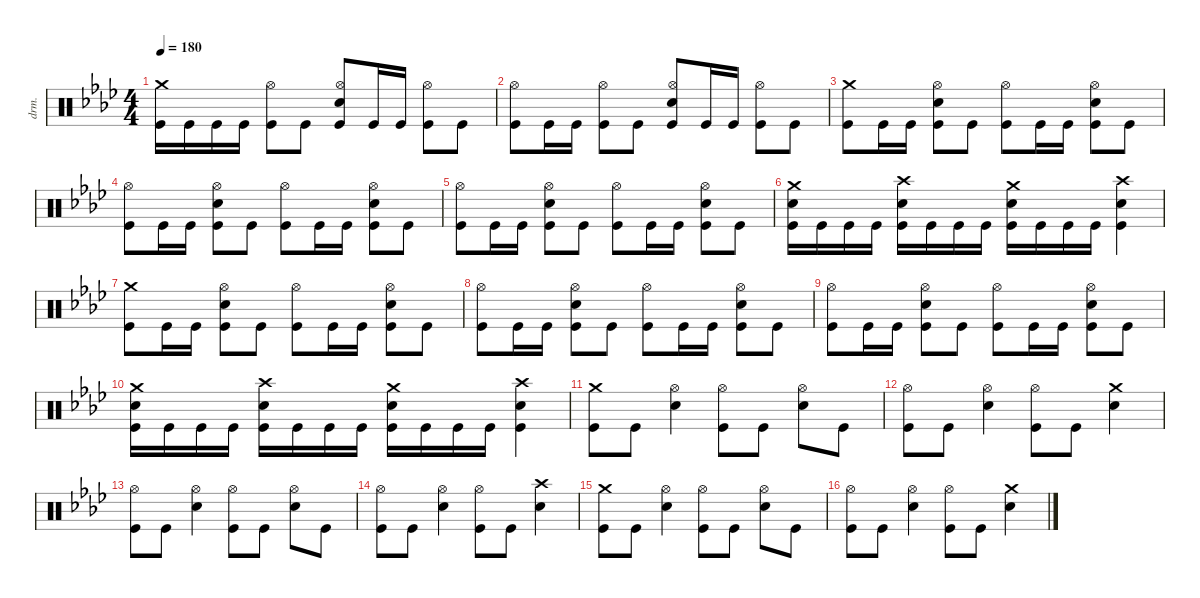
\defaultSystemsLayout 4
\hideDynamics
\bracketExtendMode nobrackets
\otherSystemsTrackNameOrientation horizontal
\track ("Percussion" "drm.") {instrument percussion}
\staff {score}
\articulation defaults
\ts (4 4)
\tempo 180
\clef neutral
\ks fminor
("Crash medium (hit)"{acc forcenatural} "Kick (hit)"{acc forcenatural}).16{dy f beam Down} "Kick (hit)"{acc forcenatural}.16{beam Down} "Kick (hit)"{acc forcenatural}.16{beam Down} "Kick (hit)"{acc forcenatural}.16{beam Down} ("Hi-Hat (open)"{acc forcenatural} "Kick (hit)"{acc forcenatural}).8{beam Down} "Kick (hit)"{acc forcenatural}.8{beam Down} ("Hi-Hat (open)"{acc forcenatural} "Snare (hit) 2"{acc forcenatural} "Kick (hit)"{acc forcenatural}).8{beam Up} "Kick (hit)"{acc forcenatural}.16{beam Up} "Kick (hit)"{acc forcenatural}.16{beam Up} ("Hi-Hat (open)"{acc forcenatural} "Kick (hit)"{acc forcenatural}).8{beam Down} "Kick (hit)"{acc forcenatural}.8{beam Down} |
("Hi-Hat (open)"{acc forcenatural} "Kick (hit)"{acc forcenatural}).8{beam Down} "Kick (hit)"{acc forcenatural}.16{beam Down} "Kick (hit)"{acc forcenatural}.16{beam Down} ("Hi-Hat (open)"{acc forcenatural} "Kick (hit)"{acc forcenatural}).8{beam Down} "Kick (hit)"{acc forcenatural}.8{beam Down} ("Hi-Hat (open)"{acc forcenatural} "Snare (hit) 2"{acc forcenatural} "Kick (hit)"{acc forcenatural}).8{beam Up} "Kick (hit)"{acc forcenatural}.16{beam Up} "Kick (hit)"{acc forcenatural}.16{beam Up} ("Hi-Hat (open)"{acc forcenatural} "Kick (hit)"{acc forcenatural}).8{beam Down} "Kick (hit)"{acc forcenatural}.8{beam Down} |
("Crash medium (hit)"{acc forcenatural} "Kick (hit)"{acc forcenatural}).8{beam Down} "Kick (hit)"{acc forcenatural}.16{beam Down} "Kick (hit)"{acc forcenatural}.16{beam Down} ("Hi-Hat (open)"{acc forcenatural} "Snare (hit) 2"{acc forcenatural} "Kick (hit)"{acc forcenatural}).8{beam Down} "Kick (hit)"{acc forcenatural}.8{beam Down} ("Hi-Hat (open)"{acc forcenatural} "Kick (hit)"{acc forcenatural}).8{beam Down} "Kick (hit)"{acc forcenatural}.16{beam Down} "Kick (hit)"{acc forcenatural}.16{beam Down} ("Hi-Hat (open)"{acc forcenatural} "Snare (hit) 2"{acc forcenatural} "Kick (hit)"{acc forcenatural}).8{beam Down} "Kick (hit)"{acc forcenatural}.8{beam Down} |
("Hi-Hat (open)"{acc forcenatural} "Kick (hit)"{acc forcenatural}).8{beam Down} "Kick (hit)"{acc forcenatural}.16{beam Down} "Kick (hit)"{acc forcenatural}.16{beam Down} ("Hi-Hat (open)"{acc forcenatural} "Snare (hit) 2"{acc forcenatural} "Kick (hit)"{acc forcenatural}).8{beam Down} "Kick (hit)"{acc forcenatural}.8{beam Down} ("Hi-Hat (open)"{acc forcenatural} "Kick (hit)"{acc forcenatural}).8{beam Down} "Kick (hit)"{acc forcenatural}.16{beam Down} "Kick (hit)"{acc forcenatural}.16{beam Down} ("Hi-Hat (open)"{acc forcenatural} "Snare (hit) 2"{acc forcenatural} "Kick (hit)"{acc forcenatural}).8{beam Down} "Kick (hit)"{acc forcenatural}.8{beam Down} |
("Hi-Hat (open)"{acc forcenatural} "Kick (hit)"{acc forcenatural}).8{beam Down} "Kick (hit)"{acc forcenatural}.16{beam Down} "Kick (hit)"{acc forcenatural}.16{beam Down} ("Hi-Hat (open)"{acc forcenatural} "Snare (hit) 2"{acc forcenatural} "Kick (hit)"{acc forcenatural}).8{beam Down} "Kick (hit)"{acc forcenatural}.8{beam Down} ("Hi-Hat (open)"{acc forcenatural} "Kick (hit)"{acc forcenatural}).8{beam Down} "Kick (hit)"{acc forcenatural}.16{beam Down} "Kick (hit)"{acc forcenatural}.16{beam Down} ("Hi-Hat (open)"{acc forcenatural} "Snare (hit) 2"{acc forcenatural} "Kick (hit)"{acc forcenatural}).8{beam Down} "Kick (hit)"{acc forcenatural}.8{beam Down} |
("Crash medium (hit)"{acc forcenatural} "Snare (hit) 2"{acc forcenatural} "Kick (hit)"{acc forcenatural}).16{beam Down} "Kick (hit)"{acc forcenatural}.16{beam Down} "Kick (hit)"{acc forcenatural}.16{beam Down} "Kick (hit)"{acc forcenatural}.16{beam Down} ("Crash high (hit)"{acc forcenatural} "Snare (hit) 2"{acc forcenatural} "Kick (hit)"{acc forcenatural}).16{beam Down} "Kick (hit)"{acc forcenatural}.16{beam Down} "Kick (hit)"{acc forcenatural}.16{beam Down} "Kick (hit)"{acc forcenatural}.16{beam Down} ("Crash medium (hit)"{acc forcenatural} "Snare (hit) 2"{acc forcenatural} "Kick (hit)"{acc forcenatural}).16{beam Down} "Kick (hit)"{acc forcenatural}.16{beam Down} "Kick (hit)"{acc forcenatural}.16{beam Down} "Kick (hit)"{acc forcenatural}.16{beam Down} ("Crash high (hit)"{acc forcenatural} "Snare (hit) 2"{acc forcenatural} "Kick (hit)"{acc forcenatural}).4{beam Down} |
("Crash medium (hit)"{acc forcenatural} "Kick (hit)"{acc forcenatural}).8{beam Down} "Kick (hit)"{acc forcenatural}.16{beam Down} "Kick (hit)"{acc forcenatural}.16{beam Down} ("Hi-Hat (open)"{acc forcenatural} "Snare (hit) 2"{acc forcenatural} "Kick (hit)"{acc forcenatural}).8{beam Down} "Kick (hit)"{acc forcenatural}.8{beam Down} ("Hi-Hat (open)"{acc forcenatural} "Kick (hit)"{acc forcenatural}).8{beam Down} "Kick (hit)"{acc forcenatural}.16{beam Down} "Kick (hit)"{acc forcenatural}.16{beam Down} ("Hi-Hat (open)"{acc forcenatural} "Snare (hit) 2"{acc forcenatural} "Kick (hit)"{acc forcenatural}).8{beam Down} "Kick (hit)"{acc forcenatural}.8{beam Down} |
("Hi-Hat (open)"{acc forcenatural} "Kick (hit)"{acc forcenatural}).8{beam Down} "Kick (hit)"{acc forcenatural}.16{beam Down} "Kick (hit)"{acc forcenatural}.16{beam Down} ("Hi-Hat (open)"{acc forcenatural} "Snare (hit) 2"{acc forcenatural} "Kick (hit)"{acc forcenatural}).8{beam Down} "Kick (hit)"{acc forcenatural}.8{beam Down} ("Hi-Hat (open)"{acc forcenatural} "Kick (hit)"{acc forcenatural}).8{beam Down} "Kick (hit)"{acc forcenatural}.16{beam Down} "Kick (hit)"{acc forcenatural}.16{beam Down} ("Hi-Hat (open)"{acc forcenatural} "Snare (hit) 2"{acc forcenatural} "Kick (hit)"{acc forcenatural}).8{beam Down} "Kick (hit)"{acc forcenatural}.8{beam Down} |
("Hi-Hat (open)"{acc forcenatural} "Kick (hit)"{acc forcenatural}).8{beam Down} "Kick (hit)"{acc forcenatural}.16{beam Down} "Kick (hit)"{acc forcenatural}.16{beam Down} ("Hi-Hat (open)"{acc forcenatural} "Snare (hit) 2"{acc forcenatural} "Kick (hit)"{acc forcenatural}).8{beam Down} "Kick (hit)"{acc forcenatural}.8{beam Down} ("Hi-Hat (open)"{acc forcenatural} "Kick (hit)"{acc forcenatural}).8{beam Down} "Kick (hit)"{acc forcenatural}.16{beam Down} "Kick (hit)"{acc forcenatural}.16{beam Down} ("Hi-Hat (open)"{acc forcenatural} "Snare (hit) 2"{acc forcenatural} "Kick (hit)"{acc forcenatural}).8{beam Down} "Kick (hit)"{acc forcenatural}.8{beam Down} |
("Crash medium (hit)"{acc forcenatural} "Snare (hit) 2"{acc forcenatural} "Kick (hit)"{acc forcenatural}).16{beam Down} "Kick (hit)"{acc forcenatural}.16{beam Down} "Kick (hit)"{acc forcenatural}.16{beam Down} "Kick (hit)"{acc forcenatural}.16{beam Down} ("Crash high (hit)"{acc forcenatural} "Snare (hit) 2"{acc forcenatural} "Kick (hit)"{acc forcenatural}).16{beam Down} "Kick (hit)"{acc forcenatural}.16{beam Down} "Kick (hit)"{acc forcenatural}.16{beam Down} "Kick (hit)"{acc forcenatural}.16{beam Down} ("Crash medium (hit)"{acc forcenatural} "Snare (hit) 2"{acc forcenatural} "Kick (hit)"{acc forcenatural}).16{beam Down} "Kick (hit)"{acc forcenatural}.16{beam Down} "Kick (hit)"{acc forcenatural}.16{beam Down} "Kick (hit)"{acc forcenatural}.16{beam Down} ("Crash high (hit)"{acc forcenatural} "Snare (hit) 2"{acc forcenatural} "Kick (hit)"{acc forcenatural}).4{beam Down} |
("Crash medium (hit)"{acc forcenatural} "Kick (hit)"{acc forcenatural}).8{beam Down} "Kick (hit)"{acc forcenatural}.8{beam Down} ("Hi-Hat (open)"{acc forcenatural} "Snare (hit) 2"{acc forcenatural}).4{beam Down} ("Hi-Hat (open)"{acc forcenatural} "Kick (hit)"{acc forcenatural}).8{beam Down} "Kick (hit)"{acc forcenatural}.8{beam Down} ("Hi-Hat (open)"{acc forcenatural} "Snare (hit) 2"{acc forcenatural}).8{beam Down} "Kick (hit)"{acc forcenatural}.8{beam Down} |
("Hi-Hat (open)"{acc forcenatural} "Kick (hit)"{acc forcenatural}).8{beam Down} "Kick (hit)"{acc forcenatural}.8{beam Down} ("Hi-Hat (open)"{acc forcenatural} "Snare (hit) 2"{acc forcenatural}).4{beam Down} ("Hi-Hat (open)"{acc forcenatural} "Kick (hit)"{acc forcenatural}).8{beam Down} "Kick (hit)"{acc forcenatural}.8{beam Down} ("Crash medium (hit)"{acc forcenatural} "Snare (hit) 2"{acc forcenatural}).4{beam Down} |
("Hi-Hat (open)"{acc forcenatural} "Kick (hit)"{acc forcenatural}).8{beam Down} "Kick (hit)"{acc forcenatural}.8{beam Down} ("Hi-Hat (open)"{acc forcenatural} "Snare (hit) 2"{acc forcenatural}).4{beam Down} ("Hi-Hat (open)"{acc forcenatural} "Kick (hit)"{acc forcenatural}).8{beam Down} "Kick (hit)"{acc forcenatural}.8{beam Down} ("Hi-Hat (open)"{acc forcenatural} "Snare (hit) 2"{acc forcenatural}).8{beam Down} "Kick (hit)"{acc forcenatural}.8{beam Down} |
("Hi-Hat (open)"{acc forcenatural} "Kick (hit)"{acc forcenatural}).8{beam Down} "Kick (hit)"{acc forcenatural}.8{beam Down} ("Hi-Hat (open)"{acc forcenatural} "Snare (hit) 2"{acc forcenatural}).4{beam Down} ("Hi-Hat (open)"{acc forcenatural} "Kick (hit)"{acc forcenatural}).8{beam Down} "Kick (hit)"{acc forcenatural}.8{beam Down} ("Crash high (hit)"{acc forcenatural} "Snare (hit) 2"{acc forcenatural}).4{beam Down} |
("Crash medium (hit)"{acc forcenatural} "Kick (hit)"{acc forcenatural}).8{beam Down} "Kick (hit)"{acc forcenatural}.8{beam Down} ("Hi-Hat (open)"{acc forcenatural} "Snare (hit) 2"{acc forcenatural}).4{beam Down} ("Hi-Hat (open)"{acc forcenatural} "Kick (hit)"{acc forcenatural}).8{beam Down} "Kick (hit)"{acc forcenatural}.8{beam Down} ("Hi-Hat (open)"{acc forcenatural} "Snare (hit) 2"{acc forcenatural}).8{beam Down} "Kick (hit)"{acc forcenatural}.8{beam Down} |
("Hi-Hat (open)"{acc forcenatural} "Kick (hit)"{acc forcenatural}).8{beam Down} "Kick (hit)"{acc forcenatural}.8{beam Down} ("Hi-Hat (open)"{acc forcenatural} "Snare (hit) 2"{acc forcenatural}).4{beam Down} ("Hi-Hat (open)"{acc forcenatural} "Kick (hit)"{acc forcenatural}).8{beam Down} "Kick (hit)"{acc forcenatural}.8{beam Down} ("Crash medium (hit)"{acc forcenatural} "Snare (hit) 2"{acc forcenatural}).4{beam Down}
